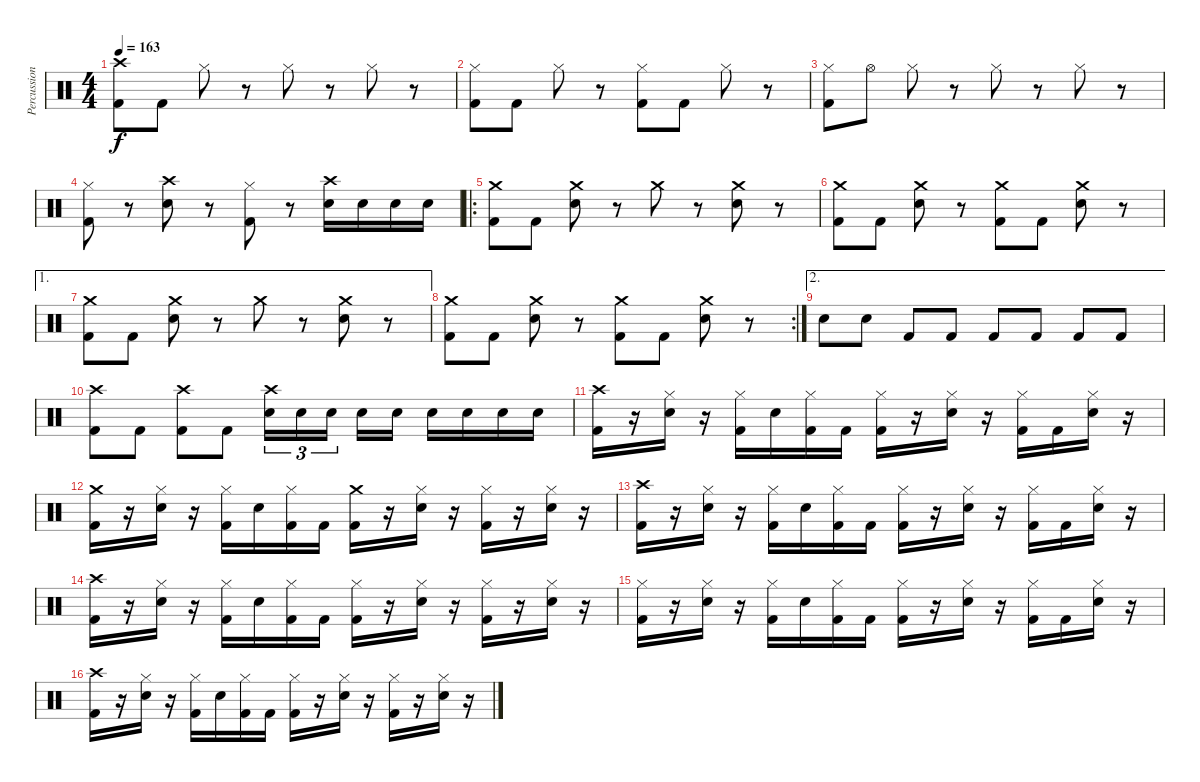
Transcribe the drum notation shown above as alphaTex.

\track ("Percussion" "Percussion") {instrument percussion}
\staff {score}
\articulation defaults
\ts (4 4)
\tempo 163
\clef neutral
\ks c
("Crash high (hit)" "Kick (hit) 2").8{dy f} "Kick (hit) 2".8 "Hi-Hat (closed)".8 r.8 "Hi-Hat (closed)".8 r.8 "Hi-Hat (closed)".8 r.8 |
("Hi-Hat (closed)" "Kick (hit) 2").8 "Kick (hit) 2".8 "Hi-Hat (closed)".8 r.8 ("Hi-Hat (closed)" "Kick (hit) 2").8 "Kick (hit) 2".8 "Hi-Hat (closed)".8 r.8 |
("Hi-Hat (closed)" "Kick (hit) 2").8 "Hi-Hat (open)".8 "Hi-Hat (closed)".8 r.8 "Hi-Hat (closed)".8 r.8 "Hi-Hat (closed)".8 r.8 |
("Hi-Hat (closed)" "Kick (hit) 2").8 r.8 ("Crash high (hit)" "Snare (hit) 2").8 r.8 ("Hi-Hat (closed)" "Kick (hit) 2").8 r.8 ("Crash high (hit)" "Snare (hit) 2").16 "Snare (hit) 2".16 "Snare (hit) 2".16 "Snare (hit) 2".16 |
\ro
("Crash medium (hit)" "Kick (hit) 2").8 "Kick (hit) 2".8 ("Crash medium (hit)" "Snare (hit) 2").8 r.8 "Crash medium (hit)".8 r.8 ("Crash medium (hit)" "Snare (hit) 2").8 r.8 |
("Crash medium (hit)" "Kick (hit) 2").8 "Kick (hit) 2".8 ("Crash medium (hit)" "Snare (hit) 2").8 r.8 ("Crash medium (hit)" "Kick (hit) 2").8 "Kick (hit) 2".8 ("Crash medium (hit)" "Snare (hit) 2").8 r.8 |
\ae 1
("Crash medium (hit)" "Kick (hit) 2").8 "Kick (hit) 2".8 ("Crash medium (hit)" "Snare (hit) 2").8 r.8 "Crash medium (hit)".8 r.8 ("Crash medium (hit)" "Snare (hit) 2").8 r.8 |
\rc 2
("Crash medium (hit)" "Kick (hit) 2").8 "Kick (hit) 2".8 ("Crash medium (hit)" "Snare (hit) 2").8 r.8 ("Crash medium (hit)" "Kick (hit) 2").8 "Kick (hit) 2".8 ("Crash medium (hit)" "Snare (hit) 2").8 r.8 |
\ae 2 "Snare (hit) 2".8 "Snare (hit) 2".8 "Kick (hit) 2".8 "Kick (hit) 2".8 "Kick (hit) 2".8 "Kick (hit) 2".8 "Kick (hit) 2".8 "Kick (hit) 2".8
|
("Crash high (hit)" "Kick (hit) 2").8 "Kick (hit) 2".8 ("Crash high (hit)" "Kick (hit) 2").8 "Kick (hit) 2".8 ("Crash high (hit)" "Snare (hit) 2").16{tu (3 2)} "Snare (hit) 2".16{tu (3 2)} "Snare (hit) 2".16{tu (3 2)} "Snare (hit) 2".16 "Snare (hit) 2".16 "Snare (hit) 2".16 "Snare (hit) 2".16 "Snare (hit) 2".16 "Snare (hit) 2".16 |
("Crash high (hit)" "Kick (hit) 2").16 r.16 ("Hi-Hat (closed)" "Snare (hit) 2").16 r.16 ("Hi-Hat (closed)" "Kick (hit) 2").16 "Snare (hit) 2".16 ("Hi-Hat (closed)" "Kick (hit) 2").16 "Kick (hit) 2".16 ("Hi-Hat (closed)" "Kick (hit) 2").16 r.16 ("Hi-Hat (closed)" "Snare (hit) 2").16 r.16 ("Hi-Hat (closed)" "Kick (hit) 2").16 "Kick (hit) 2".16 ("Hi-Hat (closed)" "Snare (hit) 2").16 r.16 |
("Crash medium (hit)" "Kick (hit) 2").16 r.16 ("Hi-Hat (closed)" "Snare (hit) 2").16 r.16 ("Hi-Hat (closed)" "Kick (hit) 2").16 "Snare (hit) 2".16 ("Hi-Hat (closed)" "Kick (hit) 2").16 "Kick (hit) 2".16 ("Crash medium (hit)" "Kick (hit) 2").16 r.16 ("Hi-Hat (closed)" "Snare (hit) 2").16 r.16 ("Hi-Hat (closed)" "Kick (hit) 2").16 r.16 ("Hi-Hat (closed)" "Snare (hit) 2").16 r.16 |
("Crash high (hit)" "Kick (hit) 2").16 r.16 ("Hi-Hat (closed)" "Snare (hit) 2").16 r.16 ("Hi-Hat (closed)" "Kick (hit) 2").16 "Snare (hit) 2".16 ("Hi-Hat (closed)" "Kick (hit) 2").16 "Kick (hit) 2".16 ("Hi-Hat (closed)" "Kick (hit) 2").16 r.16 ("Hi-Hat (closed)" "Snare (hit) 2").16 r.16 ("Hi-Hat (closed)" "Kick (hit) 2").16 "Kick (hit) 2".16 ("Hi-Hat (closed)" "Snare (hit) 2").16 r.16 |
("Crash high (hit)" "Kick (hit) 2").16 r.16 ("Hi-Hat (closed)" "Snare (hit) 2").16 r.16 ("Hi-Hat (closed)" "Kick (hit) 2").16 "Snare (hit) 2".16 ("Hi-Hat (closed)" "Kick (hit) 2").16 "Kick (hit) 2".16 ("Hi-Hat (closed)" "Kick (hit) 2").16 r.16 ("Hi-Hat (closed)" "Snare (hit) 2").16 r.16 ("Hi-Hat (closed)" "Kick (hit) 2").16 r.16 ("Hi-Hat (closed)" "Snare (hit) 2").16 r.16 |
("Hi-Hat (closed)" "Kick (hit) 2").16 r.16 ("Hi-Hat (closed)" "Snare (hit) 2").16 r.16 ("Hi-Hat (closed)" "Kick (hit) 2").16 "Snare (hit) 2".16 ("Hi-Hat (closed)" "Kick (hit) 2").16 "Kick (hit) 2".16 ("Hi-Hat (closed)" "Kick (hit) 2").16 r.16 ("Hi-Hat (closed)" "Snare (hit) 2").16 r.16 ("Hi-Hat (closed)" "Kick (hit) 2").16 "Kick (hit) 2".16 ("Hi-Hat (closed)" "Snare (hit) 2").16 r.16 |
("Crash high (hit)" "Kick (hit) 2").16 r.16 ("Hi-Hat (closed)" "Snare (hit) 2").16 r.16 ("Hi-Hat (closed)" "Kick (hit) 2").16 "Snare (hit) 2".16 ("Hi-Hat (closed)" "Kick (hit) 2").16 "Kick (hit) 2".16 ("Hi-Hat (closed)" "Kick (hit) 2").16 r.16 ("Hi-Hat (closed)" "Snare (hit) 2").16 r.16 ("Hi-Hat (closed)" "Kick (hit) 2").16 r.16 ("Hi-Hat (closed)" "Snare (hit) 2").16 r.16
